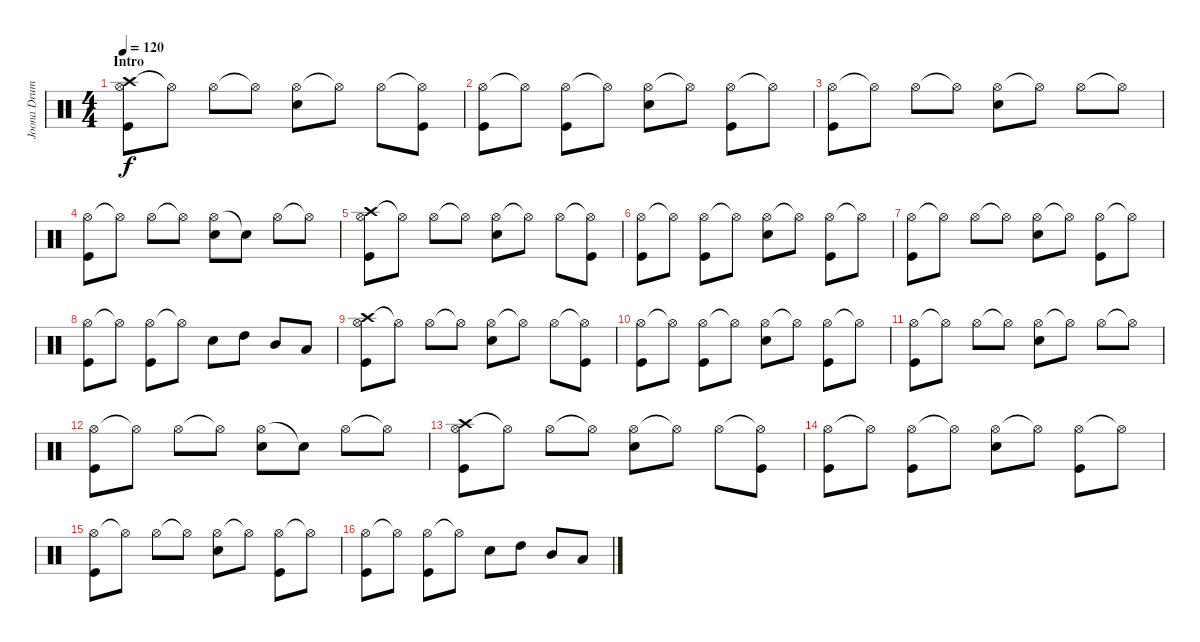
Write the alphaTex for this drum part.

\track ("Joona Drums" "Joona Drum") {instrument percussion}
\staff {score}
\articulation defaults
\ts (4 4)
\section ("" "Intro")
\tempo 120
\clef neutral
\ks c
("Crash high (hit)" "Hi-Hat (open)" "Kick (hit)").8{dy f} "Hi-Hat (open)"{t}.8 "Hi-Hat (open)".8 "Hi-Hat (open)"{t}.8 ("Hi-Hat (open)" "Snare (hit) 2").8 "Hi-Hat (open)"{t}.8 "Hi-Hat (open)".8 ("Hi-Hat (open)"{t} "Kick (hit)").8 |
("Hi-Hat (open)" "Kick (hit)").8 "Hi-Hat (open)"{t}.8 ("Hi-Hat (open)" "Kick (hit)").8 "Hi-Hat (open)"{t}.8 ("Hi-Hat (open)" "Snare (hit) 2").8 "Hi-Hat (open)"{t}.8 ("Hi-Hat (open)" "Kick (hit)").8 "Hi-Hat (open)"{t}.8 |
("Hi-Hat (open)" "Kick (hit)").8 "Hi-Hat (open)"{t}.8 "Hi-Hat (open)".8 "Hi-Hat (open)"{t}.8 ("Hi-Hat (open)" "Snare (hit) 2").8 "Hi-Hat (open)"{t}.8 "Hi-Hat (open)".8 "Hi-Hat (open)"{t}.8 |
("Hi-Hat (open)" "Kick (hit)").8 "Hi-Hat (open)"{t}.8 "Hi-Hat (open)".8 "Hi-Hat (open)"{t}.8 ("Hi-Hat (open)" "Snare (hit) 2").8 "Snare (hit)"{t}.8 "Hi-Hat (open)".8 "Hi-Hat (open)"{t}.8 |
("Crash high (hit)" "Hi-Hat (open)" "Kick (hit)").8 "Hi-Hat (open)"{t}.8 "Hi-Hat (open)".8 "Hi-Hat (open)"{t}.8 ("Hi-Hat (open)" "Snare (hit) 2").8 "Hi-Hat (open)"{t}.8 "Hi-Hat (open)".8 ("Hi-Hat (open)"{t} "Kick (hit)").8 |
("Hi-Hat (open)" "Kick (hit)").8 "Hi-Hat (open)"{t}.8 ("Hi-Hat (open)" "Kick (hit)").8 "Hi-Hat (open)"{t}.8 ("Hi-Hat (open)" "Snare (hit) 2").8 "Hi-Hat (open)"{t}.8 ("Hi-Hat (open)" "Kick (hit)").8 "Hi-Hat (open)"{t}.8 |
("Hi-Hat (open)" "Kick (hit)").8 "Hi-Hat (open)"{t}.8 "Hi-Hat (open)".8 "Hi-Hat (open)"{t}.8 ("Hi-Hat (open)" "Snare (hit) 2").8 "Hi-Hat (open)"{t}.8 ("Hi-Hat (open)" "Kick (hit)").8 "Hi-Hat (open)"{t}.8 |
("Hi-Hat (open)" "Kick (hit)").8 "Hi-Hat (open)"{t}.8 ("Hi-Hat (open)" "Kick (hit)").8 "Hi-Hat (open)"{t}.8 "Snare (hit) 2".8 "High Tom (hit)".8 "Mid Tom (hit)".8 "Low Tom (hit)".8 |
("Crash high (hit)" "Hi-Hat (open)" "Kick (hit)").8 "Hi-Hat (open)"{t}.8 "Hi-Hat (open)".8 "Hi-Hat (open)"{t}.8 ("Hi-Hat (open)" "Snare (hit) 2").8 "Hi-Hat (open)"{t}.8 "Hi-Hat (open)".8 ("Hi-Hat (open)"{t} "Kick (hit)").8 |
("Hi-Hat (open)" "Kick (hit)").8 "Hi-Hat (open)"{t}.8 ("Hi-Hat (open)" "Kick (hit)").8 "Hi-Hat (open)"{t}.8 ("Hi-Hat (open)" "Snare (hit) 2").8 "Hi-Hat (open)"{t}.8 ("Hi-Hat (open)" "Kick (hit)").8 "Hi-Hat (open)"{t}.8 |
("Hi-Hat (open)" "Kick (hit)").8 "Hi-Hat (open)"{t}.8 "Hi-Hat (open)".8 "Hi-Hat (open)"{t}.8 ("Hi-Hat (open)" "Snare (hit) 2").8 "Hi-Hat (open)"{t}.8 "Hi-Hat (open)".8 "Hi-Hat (open)"{t}.8 |
("Hi-Hat (open)" "Kick (hit)").8 "Hi-Hat (open)"{t}.8 "Hi-Hat (open)".8 "Hi-Hat (open)"{t}.8 ("Hi-Hat (open)" "Snare (hit) 2").8 "Snare (hit)"{t}.8 "Hi-Hat (open)".8 "Hi-Hat (open)"{t}.8 |
("Crash high (hit)" "Hi-Hat (open)" "Kick (hit)").8 "Hi-Hat (open)"{t}.8 "Hi-Hat (open)".8 "Hi-Hat (open)"{t}.8 ("Hi-Hat (open)" "Snare (hit) 2").8 "Hi-Hat (open)"{t}.8 "Hi-Hat (open)".8 ("Hi-Hat (open)"{t} "Kick (hit)").8 |
("Hi-Hat (open)" "Kick (hit)").8 "Hi-Hat (open)"{t}.8 ("Hi-Hat (open)" "Kick (hit)").8 "Hi-Hat (open)"{t}.8 ("Hi-Hat (open)" "Snare (hit) 2").8 "Hi-Hat (open)"{t}.8 ("Hi-Hat (open)" "Kick (hit)").8 "Hi-Hat (open)"{t}.8 |
("Hi-Hat (open)" "Kick (hit)").8 "Hi-Hat (open)"{t}.8 "Hi-Hat (open)".8 "Hi-Hat (open)"{t}.8 ("Hi-Hat (open)" "Snare (hit) 2").8 "Hi-Hat (open)"{t}.8 ("Hi-Hat (open)" "Kick (hit)").8 "Hi-Hat (open)"{t}.8 |
("Hi-Hat (open)" "Kick (hit)").8 "Hi-Hat (open)"{t}.8 ("Hi-Hat (open)" "Kick (hit)").8 "Hi-Hat (open)"{t}.8 "Snare (hit) 2".8 "High Tom (hit)".8 "Mid Tom (hit)".8 "Low Tom (hit)".8
